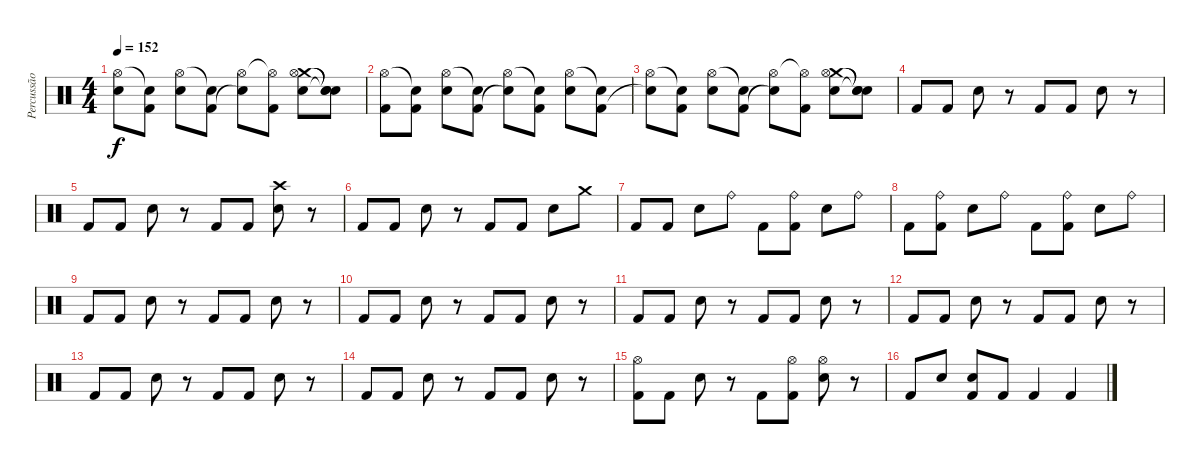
\track ("Percussão" "Percussão") {instrument percussion}
\staff {score}
\articulation defaults
\ts (4 4)
\tempo 152
\clef neutral
\ks c
("Hi-Hat (open)" "Snare (hit)"{t}).8{dy f} ("Snare (hit)"{t} "Kick (hit) 2").8 ("Hi-Hat (open)" "Snare (hit) 2").8 ("Snare (hit)"{t} "Kick (hit) 2").8 ("Hi-Hat (open)" "Snare (hit)"{t}).8 ("Hi-Hat (open)"{t} "Kick (hit) 2").8 ("Crash medium (hit)" "Snare (hit) 2" "Hi-Hat (open)").8 ("Snare (hit)"{t} "Snare (hit)"{t} "Snare (hit)"{t}).8 |
("Hi-Hat (open)" "Kick (hit) 2").8 ("Snare (hit)"{t} "Kick (hit) 2").8 ("Hi-Hat (open)" "Snare (hit) 2").8 ("Snare (hit)"{t} "Kick (hit) 2").8 ("Hi-Hat (open)" "Snare (hit)"{t}).8 ("Snare (hit)"{t} "Kick (hit) 2").8 ("Hi-Hat (open)" "Snare (hit) 2").8 ("Snare (hit)"{t} "Kick (hit) 2").8 |
("Hi-Hat (open)" "Snare (hit)"{t}).8 ("Snare (hit)"{t} "Kick (hit) 2").8 ("Hi-Hat (open)" "Snare (hit) 2").8 ("Snare (hit)"{t} "Kick (hit) 2").8 ("Hi-Hat (open)" "Snare (hit)"{t}).8 ("Hi-Hat (open)"{t} "Kick (hit) 2").8 ("Crash medium (hit)" "Snare (hit) 2" "Hi-Hat (open)").8 ("Snare (hit)"{t} "Snare (hit)"{t} "Snare (hit)"{t}).8 |
"Kick (hit) 2".8 "Kick (hit) 2".8 "Snare (hit) 2".8 r.8 "Kick (hit) 2".8 "Kick (hit) 2".8 "Snare (hit) 2".8 r.8 |
"Kick (hit) 2".8 "Kick (hit) 2".8 "Snare (hit) 2".8 r.8 "Kick (hit) 2".8 "Kick (hit) 2".8 ("Crash high (hit)" "Snare (hit) 2").8 r.8 |
"Kick (hit) 2".8 "Kick (hit) 2".8 "Snare (hit) 2".8 r.8 "Kick (hit) 2".8 "Kick (hit) 2".8 "Snare (hit) 2".8 "Crash medium (hit)".8 |
"Kick (hit) 2".8 "Kick (hit) 2".8 "Snare (hit) 2".8 "Ride (bell)".8 "Kick (hit) 2".8 ("Ride (bell)" "Kick (hit) 2").8 "Snare (hit) 2".8 "Ride (bell)".8 |
"Kick (hit) 2".8 ("Ride (bell)" "Kick (hit) 2").8 "Snare (hit) 2".8 "Ride (bell)".8 "Kick (hit) 2".8 ("Ride (bell)" "Kick (hit) 2").8 "Snare (hit) 2".8 "Ride (bell)".8 |
"Kick (hit) 2".8 "Kick (hit) 2".8 "Snare (hit) 2".8 r.8 "Kick (hit) 2".8 "Kick (hit) 2".8 "Snare (hit) 2".8 r.8 |
"Kick (hit) 2".8 "Kick (hit) 2".8 "Snare (hit) 2".8 r.8 "Kick (hit) 2".8 "Kick (hit) 2".8 "Snare (hit) 2".8 r.8 |
"Kick (hit) 2".8 "Kick (hit) 2".8 "Snare (hit) 2".8 r.8 "Kick (hit) 2".8 "Kick (hit) 2".8 "Snare (hit) 2".8 r.8 |
"Kick (hit) 2".8 "Kick (hit) 2".8 "Snare (hit) 2".8 r.8 "Kick (hit) 2".8 "Kick (hit) 2".8 "Snare (hit) 2".8 r.8 |
"Kick (hit) 2".8 "Kick (hit) 2".8 "Snare (hit) 2".8 r.8 "Kick (hit) 2".8 "Kick (hit) 2".8 "Snare (hit) 2".8 r.8 |
"Kick (hit) 2".8 "Kick (hit) 2".8 "Snare (hit) 2".8 r.8 "Kick (hit) 2".8 "Kick (hit) 2".8 "Snare (hit) 2".8 r.8 |
("Hi-Hat (open)" "Kick (hit) 2").8 "Kick (hit) 2".8 "Snare (hit) 2".8 r.8 "Kick (hit) 2".8 ("Hi-Hat (open)" "Kick (hit) 2").8 ("Hi-Hat (open)" "Snare (hit) 2").8 r.8 |
"Kick (hit) 2".8 "Snare (hit) 2".8 ("Snare (hit) 2" "Kick (hit) 2").8 "Kick (hit) 2".8 "Kick (hit) 2".4 "Kick (hit) 2".4
